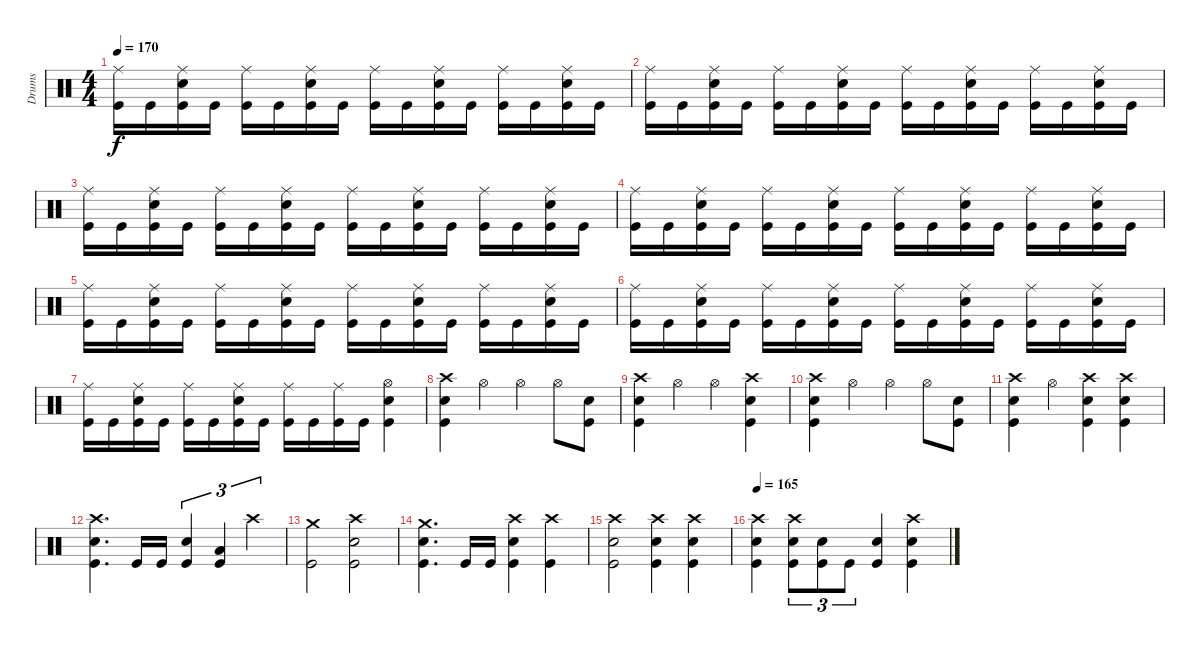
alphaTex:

\track ("Drums" "Drums") {instrument percussion}
\staff {score}
\articulation defaults
\ts (4 4)
\tempo 170
\clef neutral
\ks c
("Kick (hit)" "Ride (middle)").16{dy f} "Kick (hit)".16 ("Kick (hit)" "Snare (hit) 2" "Ride (middle)").16 "Kick (hit)".16 ("Kick (hit)" "Ride (middle)").16 "Kick (hit)".16 ("Kick (hit)" "Snare (hit) 2" "Ride (middle)").16 "Kick (hit)".16 ("Kick (hit)" "Ride (middle)").16 "Kick (hit)".16 ("Kick (hit)" "Snare (hit) 2" "Ride (middle)").16 "Kick (hit)".16 ("Kick (hit)" "Ride (middle)").16 "Kick (hit)".16 ("Kick (hit)" "Snare (hit) 2" "Ride (middle)").16 "Kick (hit)".16 |
("Kick (hit)" "Ride (middle)").16 "Kick (hit)".16 ("Kick (hit)" "Snare (hit) 2" "Ride (middle)").16 "Kick (hit)".16 ("Kick (hit)" "Ride (middle)").16 "Kick (hit)".16 ("Kick (hit)" "Snare (hit) 2" "Ride (middle)").16 "Kick (hit)".16 ("Kick (hit)" "Ride (middle)").16 "Kick (hit)".16 ("Kick (hit)" "Snare (hit) 2" "Ride (middle)").16 "Kick (hit)".16 ("Kick (hit)" "Ride (middle)").16 "Kick (hit)".16 ("Kick (hit)" "Snare (hit) 2" "Ride (middle)").16 "Kick (hit)".16 |
("Kick (hit)" "Ride (middle)").16 "Kick (hit)".16 ("Kick (hit)" "Snare (hit) 2" "Ride (middle)").16 "Kick (hit)".16 ("Kick (hit)" "Ride (middle)").16 "Kick (hit)".16 ("Kick (hit)" "Snare (hit) 2" "Ride (middle)").16 "Kick (hit)".16 ("Kick (hit)" "Ride (middle)").16 "Kick (hit)".16 ("Kick (hit)" "Snare (hit) 2" "Ride (middle)").16 "Kick (hit)".16 ("Kick (hit)" "Ride (middle)").16 "Kick (hit)".16 ("Kick (hit)" "Snare (hit) 2" "Ride (middle)").16 "Kick (hit)".16 |
("Kick (hit)" "Ride (middle)").16 "Kick (hit)".16 ("Kick (hit)" "Snare (hit) 2" "Ride (middle)").16 "Kick (hit)".16 ("Kick (hit)" "Ride (middle)").16 "Kick (hit)".16 ("Kick (hit)" "Snare (hit) 2" "Ride (middle)").16 "Kick (hit)".16 ("Kick (hit)" "Ride (middle)").16 "Kick (hit)".16 ("Kick (hit)" "Snare (hit) 2" "Ride (middle)").16 "Kick (hit)".16 ("Kick (hit)" "Ride (middle)").16 "Kick (hit)".16 ("Kick (hit)" "Snare (hit) 2" "Ride (middle)").16 "Kick (hit)".16 |
("Kick (hit)" "Ride (middle)").16 "Kick (hit)".16 ("Kick (hit)" "Snare (hit) 2" "Ride (middle)").16 "Kick (hit)".16 ("Kick (hit)" "Ride (middle)").16 "Kick (hit)".16 ("Kick (hit)" "Snare (hit) 2" "Ride (middle)").16 "Kick (hit)".16 ("Kick (hit)" "Ride (middle)").16 "Kick (hit)".16 ("Kick (hit)" "Snare (hit) 2" "Ride (middle)").16 "Kick (hit)".16 ("Kick (hit)" "Ride (middle)").16 "Kick (hit)".16 ("Kick (hit)" "Snare (hit) 2" "Ride (middle)").16 "Kick (hit)".16 |
("Kick (hit)" "Ride (middle)").16 "Kick (hit)".16 ("Kick (hit)" "Snare (hit) 2" "Ride (middle)").16 "Kick (hit)".16 ("Kick (hit)" "Ride (middle)").16 "Kick (hit)".16 ("Kick (hit)" "Snare (hit) 2" "Ride (middle)").16 "Kick (hit)".16 ("Kick (hit)" "Ride (middle)").16 "Kick (hit)".16 ("Kick (hit)" "Snare (hit) 2" "Ride (middle)").16 "Kick (hit)".16 ("Kick (hit)" "Ride (middle)").16 "Kick (hit)".16 ("Kick (hit)" "Snare (hit) 2" "Ride (middle)").16 "Kick (hit)".16 |
("Kick (hit)" "Ride (middle)").16 "Kick (hit)".16 ("Kick (hit)" "Snare (hit) 2" "Ride (middle)").16 "Kick (hit)".16 ("Kick (hit)" "Ride (middle)").16 "Kick (hit)".16 ("Kick (hit)" "Snare (hit) 2" "Ride (middle)").16 "Kick (hit)".16 ("Kick (hit)" "Ride (middle)").16 "Kick (hit)".16 ("Kick (hit)" "Ride (middle)").16 "Kick (hit)".16 ("Kick (hit)" "Hi-Hat (open)" "Snare (hit) 2").4 |
("Snare (hit) 2" "Kick (hit)" "Crash high (hit)").4 "Hi-Hat (open)".4 "Hi-Hat (open)".4 "Hi-Hat (open)".8 ("Kick (hit)" "Snare (hit) 2").8 |
("Kick (hit)" "Snare (hit) 2" "Crash high (hit)").4 "Hi-Hat (open)".4 "Hi-Hat (open)".4 ("Crash high (hit)" "Kick (hit)" "Snare (hit) 2").4 |
("Snare (hit) 2" "Kick (hit)" "Crash high (hit)").4 "Hi-Hat (open)".4 "Hi-Hat (open)".4 "Hi-Hat (open)".8 ("Kick (hit)" "Snare (hit) 2").8 |
("Kick (hit)" "Snare (hit) 2" "Crash high (hit)").4 "Hi-Hat (open)".4 ("Crash high (hit)" "Kick (hit)" "Snare (hit) 2").4 ("Crash high (hit)" "Kick (hit)" "Snare (hit) 2").4 |
("Kick (hit)" "Snare (hit) 2" "Crash high (hit)").4{d} "Kick (hit)".16 "Kick (hit)".16 ("Snare (hit) 2" "Kick (hit)").4{tu (3 2)} ("Low Tom (hit)" "Kick (hit)").4{tu (3 2)} "Crash high (hit)".4{tu (3 2)} |
("Crash medium (hit)" "Kick (hit)").2 ("Kick (hit)" "Snare (hit) 2" "Crash high (hit)").2 |
("Kick (hit)" "Snare (hit) 2" "Crash medium (hit)").4{d} "Kick (hit)".16 "Kick (hit)".16 ("Kick (hit)" "Snare (hit) 2" "Crash high (hit)").4 ("Kick (hit)" "Crash high (hit)").4 |
("Kick (hit)" "Snare (hit) 2" "Crash high (hit)").2 ("Kick (hit)" "Snare (hit) 2" "Crash high (hit)").4 ("Kick (hit)" "Snare (hit) 2" "Crash high (hit)").4 |
\tempo 165
("Kick (hit)" "Snare (hit) 2" "Crash high (hit)").4 ("Kick (hit)" "Crash high (hit)" "Snare (hit) 2").8{tu (3 2)} ("Snare (hit) 2" "Kick (hit)").8{tu (3 2)} "Kick (hit)".8{tu (3 2)} ("Kick (hit)" "Snare (hit) 2").4 ("Kick (hit)" "Snare (hit) 2" "Crash high (hit)").4
